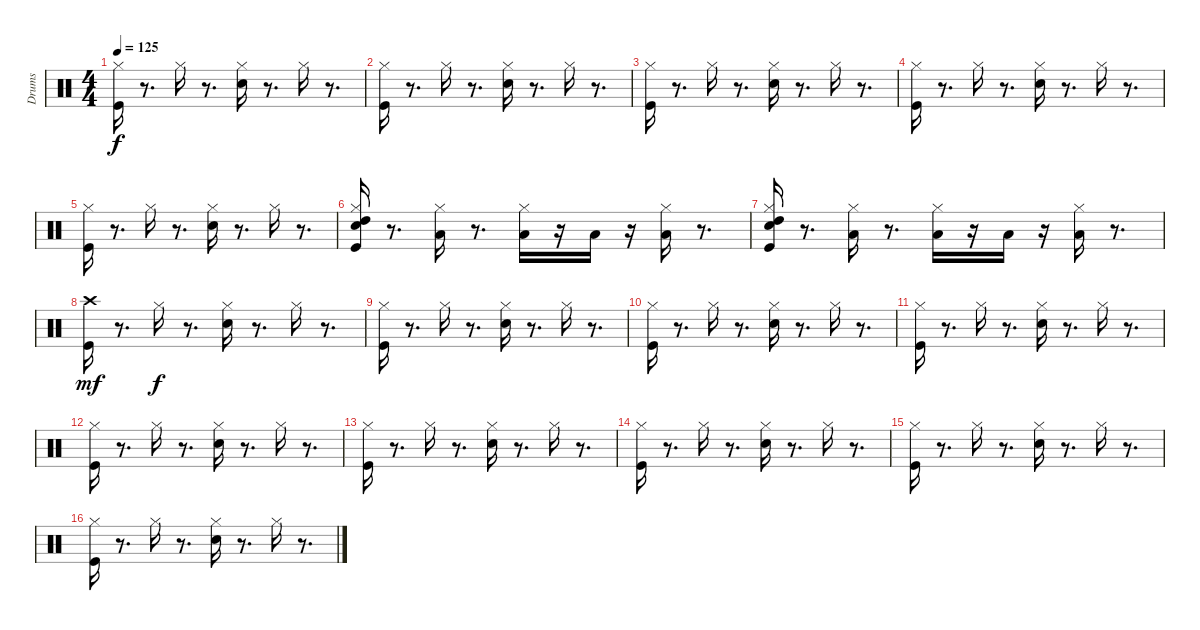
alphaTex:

\track ("Drums" "Drums") {instrument percussion}
\staff {score}
\articulation defaults
\ts (4 4)
\tempo 125
\clef neutral
\ks c
("Kick (hit)" "Hi-Hat (closed)").16{dy f} r.8{d} "Hi-Hat (closed)".16 r.8{d} ("Snare (hit) 2" "Hi-Hat (closed)").16 r.8{d} "Hi-Hat (closed)".16 r.8{d} |
("Kick (hit)" "Hi-Hat (closed)").16 r.8{d} "Hi-Hat (closed)".16 r.8{d} ("Snare (hit) 2" "Hi-Hat (closed)").16 r.8{d} "Hi-Hat (closed)".16 r.8{d} |
("Kick (hit)" "Hi-Hat (closed)").16 r.8{d} "Hi-Hat (closed)".16 r.8{d} ("Snare (hit) 2" "Hi-Hat (closed)").16 r.8{d} "Hi-Hat (closed)".16 r.8{d} |
("Kick (hit)" "Hi-Hat (closed)").16 r.8{d} "Hi-Hat (closed)".16 r.8{d} ("Snare (hit) 2" "Hi-Hat (closed)").16 r.8{d} "Hi-Hat (closed)".16 r.8{d} |
("Kick (hit)" "Hi-Hat (closed)").16 r.8{d} "Hi-Hat (closed)".16 r.8{d} ("Snare (hit) 2" "Hi-Hat (closed)").16 r.8{d} "Hi-Hat (closed)".16 r.8{d} |
("Kick (hit)" "Snare (hit) 2" "Hi-Hat (closed)" "High Tom (hit)").16 r.8{d} ("Hi-Hat (closed)" "Low Tom (hit)").16 r.8{d} ("Hi-Hat (closed)" "Low Tom (hit)").16 r.16 "Low Floor Tom (hit)".16 r.16 ("Hi-Hat (closed)" "Low Floor Tom (hit)").16 r.8{d} |
("Kick (hit)" "Snare (hit) 2" "Hi-Hat (closed)" "High Tom (hit)").16 r.8{d} ("Hi-Hat (closed)" "Low Tom (hit)").16 r.8{d} ("Hi-Hat (closed)" "Low Tom (hit)").16 r.16 "Low Floor Tom (hit)".16 r.16 ("Hi-Hat (closed)" "Low Floor Tom (hit)").16 r.8{d} |
("Kick (hit)" "Crash high (hit)").16{dy mf} r.8{d} "Hi-Hat (closed)".16{dy f} r.8{d} ("Snare (hit) 2" "Hi-Hat (closed)").16 r.8{d} "Hi-Hat (closed)".16 r.8{d} |
("Kick (hit)" "Hi-Hat (closed)").16 r.8{d} "Hi-Hat (closed)".16 r.8{d} ("Snare (hit) 2" "Hi-Hat (closed)").16 r.8{d} "Hi-Hat (closed)".16 r.8{d} |
("Kick (hit)" "Hi-Hat (closed)").16 r.8{d} "Hi-Hat (closed)".16 r.8{d} ("Snare (hit) 2" "Hi-Hat (closed)").16 r.8{d} "Hi-Hat (closed)".16 r.8{d} |
("Kick (hit)" "Hi-Hat (closed)").16 r.8{d} "Hi-Hat (closed)".16 r.8{d} ("Snare (hit) 2" "Hi-Hat (closed)").16 r.8{d} "Hi-Hat (closed)".16 r.8{d} |
("Kick (hit)" "Hi-Hat (closed)").16 r.8{d} "Hi-Hat (closed)".16 r.8{d} ("Snare (hit) 2" "Hi-Hat (closed)").16 r.8{d} "Hi-Hat (closed)".16 r.8{d} |
("Kick (hit)" "Hi-Hat (closed)").16 r.8{d} "Hi-Hat (closed)".16 r.8{d} ("Snare (hit) 2" "Hi-Hat (closed)").16 r.8{d} "Hi-Hat (closed)".16 r.8{d} |
("Kick (hit)" "Hi-Hat (closed)").16 r.8{d} "Hi-Hat (closed)".16 r.8{d} ("Snare (hit) 2" "Hi-Hat (closed)").16 r.8{d} "Hi-Hat (closed)".16 r.8{d} |
("Kick (hit)" "Hi-Hat (closed)").16 r.8{d} "Hi-Hat (closed)".16 r.8{d} ("Snare (hit) 2" "Hi-Hat (closed)").16 r.8{d} "Hi-Hat (closed)".16 r.8{d} |
("Kick (hit)" "Hi-Hat (closed)").16 r.8{d} "Hi-Hat (closed)".16 r.8{d} ("Snare (hit) 2" "Hi-Hat (closed)").16 r.8{d} "Hi-Hat (closed)".16 r.8{d}
